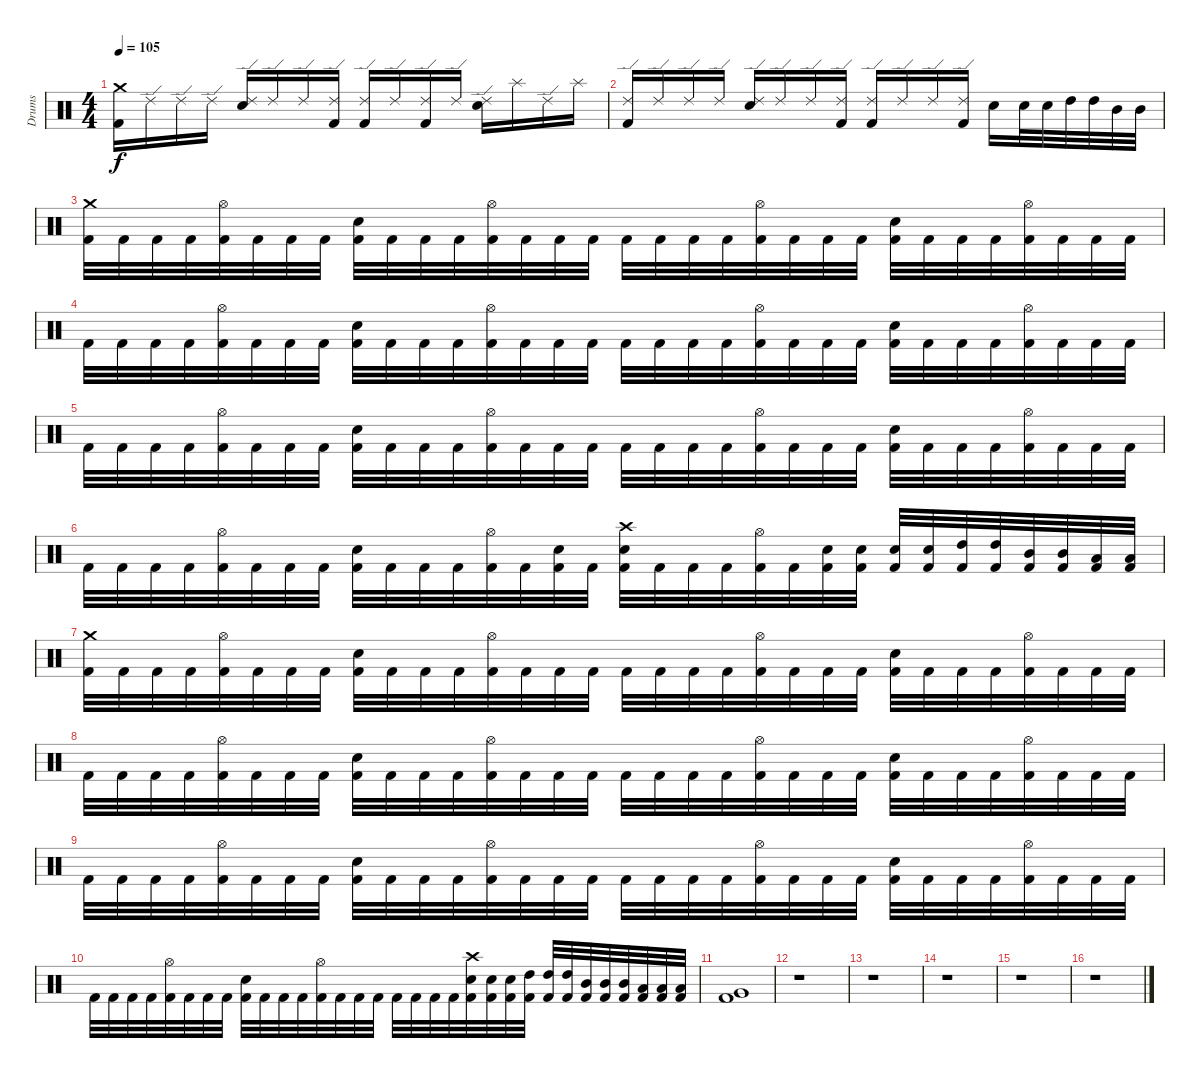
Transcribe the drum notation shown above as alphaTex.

\track ("Drums" "Drums") {instrument percussion}
\staff {score}
\articulation defaults
\ts (4 4)
\tempo 105
\clef neutral
\ks c
("Kick (hit) 2" "Crash medium (hit)").16{dy f} "Ride (edge) 2".16 "Ride (edge) 2".16 "Ride (edge) 2".16 ("Electric Snare (hit)" "Ride (edge) 2").16 "Ride (edge) 2".16 "Ride (edge) 2".16 ("Kick (hit) 2" "Ride (edge) 2").16 ("Kick (hit) 2" "Ride (edge) 2").16 "Ride (edge) 2".16 ("Kick (hit) 2" "Ride (edge) 2").16 "Ride (edge) 2".16 ("Electric Snare (hit)" "Ride (edge) 2").16 "Splash (hit)".16 "Ride (edge) 2".16 "Splash (hit)".16 |
("Kick (hit) 2" "Ride (edge) 2").16 "Ride (edge) 2".16 "Ride (edge) 2".16 "Ride (edge) 2".16 ("Electric Snare (hit)" "Ride (edge) 2").16 "Ride (edge) 2".16 "Ride (edge) 2".16 ("Kick (hit) 2" "Ride (edge) 2").16 ("Kick (hit) 2" "Ride (edge) 2").16 "Ride (edge) 2".16 "Ride (edge) 2".16 ("Kick (hit) 2" "Ride (edge) 2").16 "Electric Snare (hit)".16 "Electric Snare (hit)".32 "Electric Snare (hit)".32 "High Tom (hit)".32 "High Tom (hit)".32 "Mid Tom (hit)".32 "Mid Tom (hit)".32 |
("Kick (hit) 2" "Crash medium (hit)").32 "Kick (hit) 2".32 "Kick (hit) 2".32 "Kick (hit) 2".32 ("Kick (hit) 2" "Hi-Hat (open)").32 "Kick (hit) 2".32 "Kick (hit) 2".32 "Kick (hit) 2".32 ("Kick (hit) 2" "Electric Snare (hit)").32 "Kick (hit) 2".32 "Kick (hit) 2".32 "Kick (hit) 2".32 ("Kick (hit) 2" "Hi-Hat (open)").32 "Kick (hit) 2".32 "Kick (hit) 2".32 "Kick (hit) 2".32 "Kick (hit) 2".32 "Kick (hit) 2".32 "Kick (hit) 2".32 "Kick (hit) 2".32 ("Kick (hit) 2" "Hi-Hat (open)").32 "Kick (hit) 2".32 "Kick (hit) 2".32 "Kick (hit) 2".32 ("Kick (hit) 2" "Electric Snare (hit)").32 "Kick (hit) 2".32 "Kick (hit) 2".32 "Kick (hit) 2".32 ("Kick (hit) 2" "Hi-Hat (open)").32 "Kick (hit) 2".32 "Kick (hit) 2".32 "Kick (hit) 2".32 |
"Kick (hit) 2".32 "Kick (hit) 2".32 "Kick (hit) 2".32 "Kick (hit) 2".32 ("Kick (hit) 2" "Hi-Hat (open)").32 "Kick (hit) 2".32 "Kick (hit) 2".32 "Kick (hit) 2".32 ("Kick (hit) 2" "Electric Snare (hit)").32 "Kick (hit) 2".32 "Kick (hit) 2".32 "Kick (hit) 2".32 ("Kick (hit) 2" "Hi-Hat (open)").32 "Kick (hit) 2".32 "Kick (hit) 2".32 "Kick (hit) 2".32 "Kick (hit) 2".32 "Kick (hit) 2".32 "Kick (hit) 2".32 "Kick (hit) 2".32 ("Kick (hit) 2" "Hi-Hat (open)").32 "Kick (hit) 2".32 "Kick (hit) 2".32 "Kick (hit) 2".32 ("Kick (hit) 2" "Electric Snare (hit)").32 "Kick (hit) 2".32 "Kick (hit) 2".32 "Kick (hit) 2".32 ("Kick (hit) 2" "Hi-Hat (open)").32 "Kick (hit) 2".32 "Kick (hit) 2".32 "Kick (hit) 2".32 |
"Kick (hit) 2".32 "Kick (hit) 2".32 "Kick (hit) 2".32 "Kick (hit) 2".32 ("Kick (hit) 2" "Hi-Hat (open)").32 "Kick (hit) 2".32 "Kick (hit) 2".32 "Kick (hit) 2".32 ("Kick (hit) 2" "Electric Snare (hit)").32 "Kick (hit) 2".32 "Kick (hit) 2".32 "Kick (hit) 2".32 ("Kick (hit) 2" "Hi-Hat (open)").32 "Kick (hit) 2".32 "Kick (hit) 2".32 "Kick (hit) 2".32 "Kick (hit) 2".32 "Kick (hit) 2".32 "Kick (hit) 2".32 "Kick (hit) 2".32 ("Kick (hit) 2" "Hi-Hat (open)").32 "Kick (hit) 2".32 "Kick (hit) 2".32 "Kick (hit) 2".32 ("Kick (hit) 2" "Electric Snare (hit)").32 "Kick (hit) 2".32 "Kick (hit) 2".32 "Kick (hit) 2".32 ("Kick (hit) 2" "Hi-Hat (open)").32 "Kick (hit) 2".32 "Kick (hit) 2".32 "Kick (hit) 2".32 |
"Kick (hit) 2".32 "Kick (hit) 2".32 "Kick (hit) 2".32 "Kick (hit) 2".32 ("Kick (hit) 2" "Hi-Hat (open)").32 "Kick (hit) 2".32 "Kick (hit) 2".32 "Kick (hit) 2".32 ("Kick (hit) 2" "Electric Snare (hit)").32 "Kick (hit) 2".32 "Kick (hit) 2".32 "Kick (hit) 2".32 ("Kick (hit) 2" "Hi-Hat (open)").32 "Kick (hit) 2".32 ("Kick (hit) 2" "Electric Snare (hit)").32 "Kick (hit) 2".32 ("Kick (hit) 2" "Electric Snare (hit)" "Crash high (hit)").32 "Kick (hit) 2".32 "Kick (hit) 2".32 "Kick (hit) 2".32 ("Kick (hit) 2" "Hi-Hat (open)").32 "Kick (hit) 2".32 ("Kick (hit) 2" "Electric Snare (hit)").32 ("Kick (hit) 2" "Electric Snare (hit)").32 ("Kick (hit) 2" "Electric Snare (hit)").32 ("Kick (hit) 2" "Electric Snare (hit)").32 ("Kick (hit) 2" "High Tom (hit)").32 ("Kick (hit) 2" "High Tom (hit)").32 ("Kick (hit) 2" "Mid Tom (hit)").32 ("Kick (hit) 2" "Mid Tom (hit)").32 ("Kick (hit) 2" "Low Tom (hit)").32 ("Kick (hit) 2" "Low Tom (hit)").32 |
("Kick (hit) 2" "Crash medium (hit)").32 "Kick (hit) 2".32 "Kick (hit) 2".32 "Kick (hit) 2".32 ("Kick (hit) 2" "Hi-Hat (open)").32 "Kick (hit) 2".32 "Kick (hit) 2".32 "Kick (hit) 2".32 ("Kick (hit) 2" "Electric Snare (hit)").32 "Kick (hit) 2".32 "Kick (hit) 2".32 "Kick (hit) 2".32 ("Kick (hit) 2" "Hi-Hat (open)").32 "Kick (hit) 2".32 "Kick (hit) 2".32 "Kick (hit) 2".32 "Kick (hit) 2".32 "Kick (hit) 2".32 "Kick (hit) 2".32 "Kick (hit) 2".32 ("Kick (hit) 2" "Hi-Hat (open)").32 "Kick (hit) 2".32 "Kick (hit) 2".32 "Kick (hit) 2".32 ("Kick (hit) 2" "Electric Snare (hit)").32 "Kick (hit) 2".32 "Kick (hit) 2".32 "Kick (hit) 2".32 ("Kick (hit) 2" "Hi-Hat (open)").32 "Kick (hit) 2".32 "Kick (hit) 2".32 "Kick (hit) 2".32 |
"Kick (hit) 2".32 "Kick (hit) 2".32 "Kick (hit) 2".32 "Kick (hit) 2".32 ("Kick (hit) 2" "Hi-Hat (open)").32 "Kick (hit) 2".32 "Kick (hit) 2".32 "Kick (hit) 2".32 ("Kick (hit) 2" "Electric Snare (hit)").32 "Kick (hit) 2".32 "Kick (hit) 2".32 "Kick (hit) 2".32 ("Kick (hit) 2" "Hi-Hat (open)").32 "Kick (hit) 2".32 "Kick (hit) 2".32 "Kick (hit) 2".32 "Kick (hit) 2".32 "Kick (hit) 2".32 "Kick (hit) 2".32 "Kick (hit) 2".32 ("Kick (hit) 2" "Hi-Hat (open)").32 "Kick (hit) 2".32 "Kick (hit) 2".32 "Kick (hit) 2".32 ("Kick (hit) 2" "Electric Snare (hit)").32 "Kick (hit) 2".32 "Kick (hit) 2".32 "Kick (hit) 2".32 ("Kick (hit) 2" "Hi-Hat (open)").32 "Kick (hit) 2".32 "Kick (hit) 2".32 "Kick (hit) 2".32 |
"Kick (hit) 2".32 "Kick (hit) 2".32 "Kick (hit) 2".32 "Kick (hit) 2".32 ("Kick (hit) 2" "Hi-Hat (open)").32 "Kick (hit) 2".32 "Kick (hit) 2".32 "Kick (hit) 2".32 ("Kick (hit) 2" "Electric Snare (hit)").32 "Kick (hit) 2".32 "Kick (hit) 2".32 "Kick (hit) 2".32 ("Kick (hit) 2" "Hi-Hat (open)").32 "Kick (hit) 2".32 "Kick (hit) 2".32 "Kick (hit) 2".32 "Kick (hit) 2".32 "Kick (hit) 2".32 "Kick (hit) 2".32 "Kick (hit) 2".32 ("Kick (hit) 2" "Hi-Hat (open)").32 "Kick (hit) 2".32 "Kick (hit) 2".32 "Kick (hit) 2".32 ("Kick (hit) 2" "Electric Snare (hit)").32 "Kick (hit) 2".32 "Kick (hit) 2".32 "Kick (hit) 2".32 ("Kick (hit) 2" "Hi-Hat (open)").32 "Kick (hit) 2".32 "Kick (hit) 2".32 "Kick (hit) 2".32 |
"Kick (hit) 2".32 "Kick (hit) 2".32 "Kick (hit) 2".32 "Kick (hit) 2".32 ("Kick (hit) 2" "Hi-Hat (open)").32 "Kick (hit) 2".32 "Kick (hit) 2".32 "Kick (hit) 2".32 ("Kick (hit) 2" "Electric Snare (hit)").32 "Kick (hit) 2".32 "Kick (hit) 2".32 "Kick (hit) 2".32 ("Kick (hit) 2" "Hi-Hat (open)").32 "Kick (hit) 2".32 "Kick (hit) 2".32 "Kick (hit) 2".32 "Kick (hit) 2".32 "Kick (hit) 2".32 "Kick (hit) 2".32 "Kick (hit) 2".32 ("Kick (hit) 2" "Electric Snare (hit)" "Crash high (hit)").32 ("Kick (hit) 2" "Electric Snare (hit)").32 ("Kick (hit) 2" "Electric Snare (hit)").32 ("Kick (hit) 2" "High Tom (hit)").32 ("Kick (hit) 2" "High Tom (hit)").32 ("Kick (hit) 2" "High Tom (hit)").32 ("Kick (hit) 2" "Mid Tom (hit)").32 ("Kick (hit) 2" "Mid Tom (hit)").32 ("Kick (hit) 2" "Mid Tom (hit)").32 ("Kick (hit) 2" "Low Tom (hit)").32 ("Kick (hit) 2" "Low Tom (hit)").32 ("Kick (hit) 2" "Low Tom (hit)").32 |
("Kick (hit) 2" "Very Low Tom (hit)").1 |
r.1 |
r.1 |
r.1 |
r.1 |
r.1
